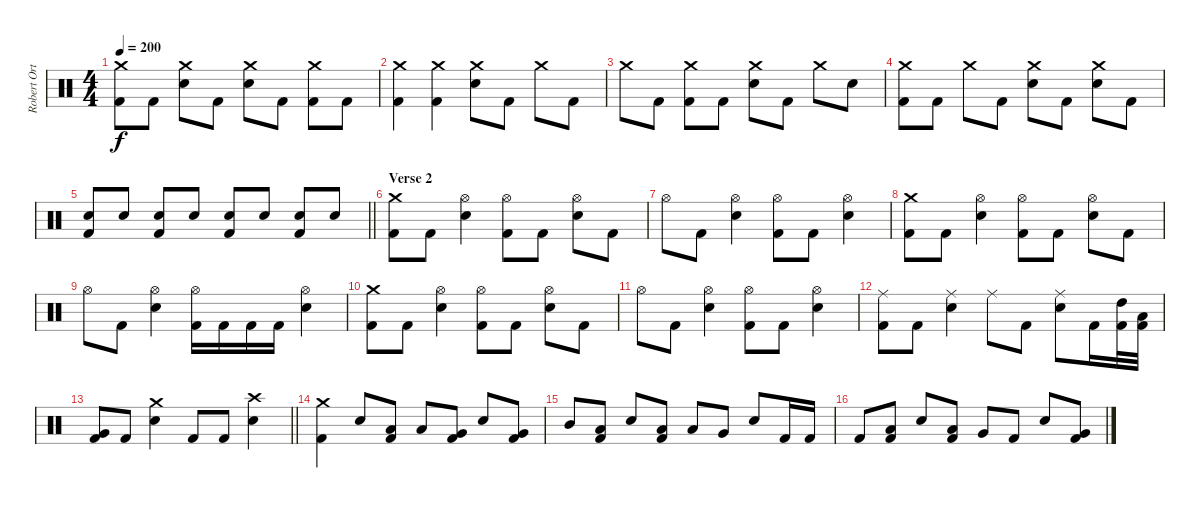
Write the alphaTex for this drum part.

\track ("Robert Ortiz - Drums" "Robert Ort") {instrument percussion}
\staff {score}
\articulation defaults
\ts (4 4)
\tempo 200
\clef neutral
\ks c
("Crash medium (hit)" "Kick (hit) 2").8{dy f} "Kick (hit) 2".8 ("Crash medium (hit)" "Electric Snare (hit)").8 "Kick (hit) 2".8 ("Crash medium (hit)" "Electric Snare (hit)").8 "Kick (hit) 2".8 ("Crash medium (hit)" "Kick (hit) 2").8 "Kick (hit) 2".8 |
("Crash medium (hit)" "Kick (hit) 2").4 ("Crash medium (hit)" "Kick (hit) 2").4 ("Crash medium (hit)" "Electric Snare (hit)").8 "Kick (hit) 2".8 "Crash medium (hit)".8 "Kick (hit) 2".8 |
"Crash medium (hit)".8 "Kick (hit) 2".8 ("Crash medium (hit)" "Kick (hit) 2").8 "Kick (hit) 2".8 ("Crash medium (hit)" "Electric Snare (hit)").8 "Kick (hit) 2".8 "Crash medium (hit)".8 "Electric Snare (hit)".8 |
("Crash medium (hit)" "Kick (hit) 2").8 "Kick (hit) 2".8 "Crash medium (hit)".8 "Kick (hit) 2".8 ("Crash medium (hit)" "Electric Snare (hit)").8 "Kick (hit) 2".8 ("Crash medium (hit)" "Electric Snare (hit)").8 "Kick (hit) 2".8 |
\barLineRight lightlight
("Electric Snare (hit)" "Kick (hit) 2").8 "Electric Snare (hit)".8 ("Electric Snare (hit)" "Kick (hit) 2").8 "Electric Snare (hit)".8 ("Electric Snare (hit)" "Kick (hit) 2").8 "Electric Snare (hit)".8 ("Electric Snare (hit)" "Kick (hit) 2").8 "Electric Snare (hit)".8 |
\section ("" "Verse 2")
("Crash medium (hit)" "Kick (hit) 2").8 "Kick (hit) 2".8 ("Hi-Hat (open)" "Electric Snare (hit)").4 ("Hi-Hat (open)" "Kick (hit) 2").8 "Kick (hit) 2".8 ("Hi-Hat (open)" "Electric Snare (hit)").8 "Kick (hit) 2".8 |
"Hi-Hat (open)".8 "Kick (hit) 2".8 ("Hi-Hat (open)" "Electric Snare (hit)").4 ("Hi-Hat (open)" "Kick (hit) 2").8 "Kick (hit) 2".8 ("Hi-Hat (open)" "Electric Snare (hit)").4 |
("Crash medium (hit)" "Kick (hit) 2").8 "Kick (hit) 2".8 ("Hi-Hat (open)" "Electric Snare (hit)").4 ("Hi-Hat (open)" "Kick (hit) 2").8 "Kick (hit) 2".8 ("Hi-Hat (open)" "Electric Snare (hit)").8 "Kick (hit) 2".8 |
"Hi-Hat (open)".8 "Kick (hit) 2".8 ("Hi-Hat (open)" "Electric Snare (hit)").4 ("Hi-Hat (open)" "Kick (hit) 2").16 "Kick (hit) 2".16 "Kick (hit) 2".16 "Kick (hit) 2".16 ("Hi-Hat (open)" "Electric Snare (hit)").4 |
("Crash medium (hit)" "Kick (hit) 2").8 "Kick (hit) 2".8 ("Hi-Hat (open)" "Electric Snare (hit)").4 ("Hi-Hat (open)" "Kick (hit) 2").8 "Kick (hit) 2".8 ("Hi-Hat (open)" "Electric Snare (hit)").8 "Kick (hit) 2".8 |
"Hi-Hat (open)".8 "Kick (hit) 2".8 ("Hi-Hat (open)" "Electric Snare (hit)").4 ("Hi-Hat (open)" "Kick (hit) 2").8 "Kick (hit) 2".8 ("Hi-Hat (open)" "Electric Snare (hit)").4 |
("Ride (middle)" "Kick (hit) 2").8 "Kick (hit) 2".8 ("Ride (middle)" "Electric Snare (hit)").4 "Ride (middle)".8 "Kick (hit) 2".8 ("Ride (middle)" "Electric Snare (hit)").8 "Kick (hit) 2".16 ("High Tom (hit)" "Kick (hit) 2").32 ("Low Tom (hit)" "Kick (hit) 2").32 |
\barLineRight lightlight
("Very Low Tom (hit)" "Kick (hit) 2").8 "Kick (hit) 2".8 ("Crash medium (hit)" "Electric Snare (hit)").4 "Kick (hit) 2".8 "Kick (hit) 2".8 ("Crash high (hit)" "Electric Snare (hit)").4 |
("Crash medium (hit)" "Kick (hit) 2").4 "Electric Snare (hit)".8 ("Low Floor Tom (hit)" "Kick (hit) 2").8 "Low Tom (hit)".8 ("Very Low Tom (hit)" "Kick (hit) 2").8 "Electric Snare (hit)".8 ("Very Low Tom (hit)" "Kick (hit) 2").8 |
"Mid Tom (hit)".8 ("Low Tom (hit)" "Kick (hit) 2").8 "Electric Snare (hit)".8 ("Low Floor Tom (hit)" "Kick (hit) 2").8 "Low Tom (hit)".8 "Very Low Tom (hit)".8 "Electric Snare (hit)".8 "Kick (hit) 2".16 "Kick (hit) 2".16 |
"Kick (hit) 2".8 ("Low Tom (hit)" "Kick (hit) 2").8 "Electric Snare (hit)".8 ("Low Floor Tom (hit)" "Kick (hit) 2").8 "Very Low Tom (hit)".8 "Kick (hit) 2".8 "Electric Snare (hit)".8 ("Very Low Tom (hit)" "Kick (hit) 2").8
